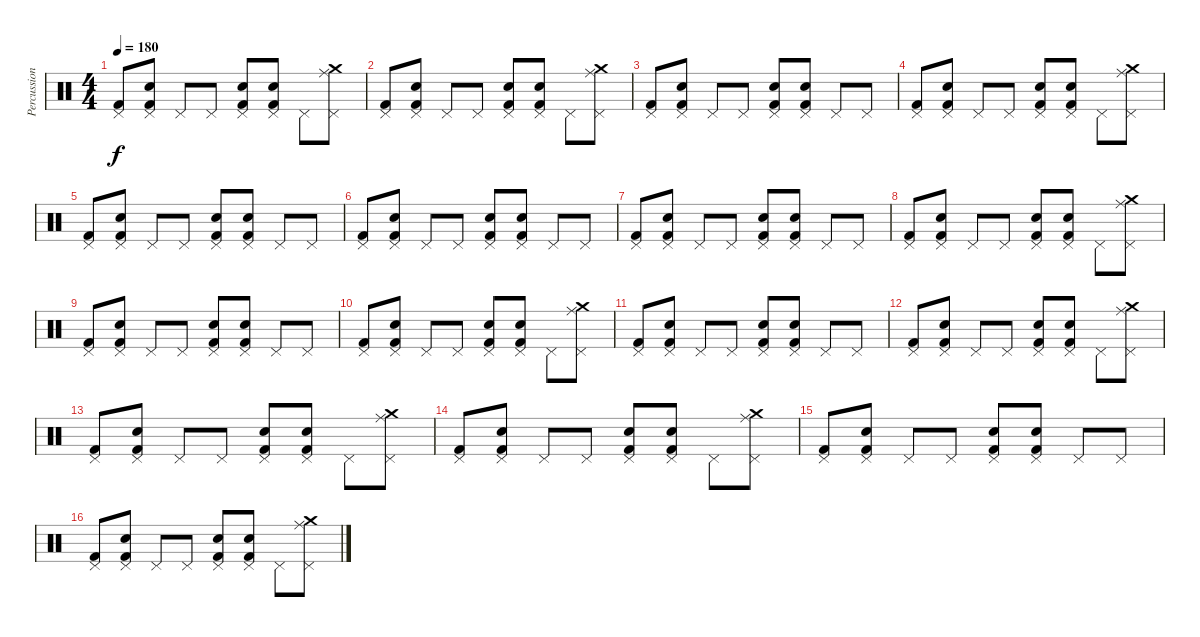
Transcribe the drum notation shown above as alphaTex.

\track ("Percussion" "Percussion") {instrument percussion}
\staff {score}
\articulation defaults
\ts (4 4)
\tempo 180
\clef neutral
\ks c
("Pedal Hi-Hat (hit)" "Kick (hit) 2").8{dy f} ("Pedal Hi-Hat (hit)" "Snare (hit) 2" "Kick (hit) 2").8 "Pedal Hi-Hat (hit)".8 "Pedal Hi-Hat (hit)".8 ("Pedal Hi-Hat (hit)" "Snare (hit) 2" "Kick (hit) 2").8 ("Pedal Hi-Hat (hit)" "Snare (hit) 2" "Kick (hit) 2").8 "Pedal Hi-Hat (hit)".8 ("Pedal Hi-Hat (hit)" "Ride (middle)" "Crash medium (hit)").8 |
("Pedal Hi-Hat (hit)" "Kick (hit) 2").8 ("Pedal Hi-Hat (hit)" "Snare (hit) 2" "Kick (hit) 2").8 "Pedal Hi-Hat (hit)".8 "Pedal Hi-Hat (hit)".8 ("Pedal Hi-Hat (hit)" "Snare (hit) 2" "Kick (hit) 2").8 ("Pedal Hi-Hat (hit)" "Snare (hit) 2" "Kick (hit) 2").8 "Pedal Hi-Hat (hit)".8 ("Pedal Hi-Hat (hit)" "Ride (middle)" "Crash medium (hit)").8 |
("Pedal Hi-Hat (hit)" "Kick (hit) 2").8 ("Pedal Hi-Hat (hit)" "Snare (hit) 2" "Kick (hit) 2").8 "Pedal Hi-Hat (hit)".8 "Pedal Hi-Hat (hit)".8 ("Pedal Hi-Hat (hit)" "Snare (hit) 2" "Kick (hit) 2").8 ("Pedal Hi-Hat (hit)" "Snare (hit) 2" "Kick (hit) 2").8 "Pedal Hi-Hat (hit)".8 "Pedal Hi-Hat (hit)".8 |
("Pedal Hi-Hat (hit)" "Kick (hit) 2").8 ("Pedal Hi-Hat (hit)" "Snare (hit) 2" "Kick (hit) 2").8 "Pedal Hi-Hat (hit)".8 "Pedal Hi-Hat (hit)".8 ("Pedal Hi-Hat (hit)" "Snare (hit) 2" "Kick (hit) 2").8 ("Pedal Hi-Hat (hit)" "Snare (hit) 2" "Kick (hit) 2").8 "Pedal Hi-Hat (hit)".8 ("Pedal Hi-Hat (hit)" "Ride (middle)" "Crash medium (hit)").8 |
("Pedal Hi-Hat (hit)" "Kick (hit) 2").8 ("Pedal Hi-Hat (hit)" "Snare (hit) 2" "Kick (hit) 2").8 "Pedal Hi-Hat (hit)".8 "Pedal Hi-Hat (hit)".8 ("Pedal Hi-Hat (hit)" "Snare (hit) 2" "Kick (hit) 2").8 ("Pedal Hi-Hat (hit)" "Snare (hit) 2" "Kick (hit) 2").8 "Pedal Hi-Hat (hit)".8 "Pedal Hi-Hat (hit)".8 |
("Pedal Hi-Hat (hit)" "Kick (hit) 2").8 ("Pedal Hi-Hat (hit)" "Snare (hit) 2" "Kick (hit) 2").8 "Pedal Hi-Hat (hit)".8 "Pedal Hi-Hat (hit)".8 ("Pedal Hi-Hat (hit)" "Snare (hit) 2" "Kick (hit) 2").8 ("Pedal Hi-Hat (hit)" "Snare (hit) 2" "Kick (hit) 2").8 "Pedal Hi-Hat (hit)".8 "Pedal Hi-Hat (hit)".8 |
("Pedal Hi-Hat (hit)" "Kick (hit) 2").8 ("Pedal Hi-Hat (hit)" "Snare (hit) 2" "Kick (hit) 2").8 "Pedal Hi-Hat (hit)".8 "Pedal Hi-Hat (hit)".8 ("Pedal Hi-Hat (hit)" "Snare (hit) 2" "Kick (hit) 2").8 ("Pedal Hi-Hat (hit)" "Snare (hit) 2" "Kick (hit) 2").8 "Pedal Hi-Hat (hit)".8 "Pedal Hi-Hat (hit)".8 |
("Pedal Hi-Hat (hit)" "Kick (hit) 2").8 ("Pedal Hi-Hat (hit)" "Snare (hit) 2" "Kick (hit) 2").8 "Pedal Hi-Hat (hit)".8 "Pedal Hi-Hat (hit)".8 ("Pedal Hi-Hat (hit)" "Snare (hit) 2" "Kick (hit) 2").8 ("Pedal Hi-Hat (hit)" "Snare (hit) 2" "Kick (hit) 2").8 "Pedal Hi-Hat (hit)".8 ("Pedal Hi-Hat (hit)" "Ride (middle)" "Crash medium (hit)").8 |
("Pedal Hi-Hat (hit)" "Kick (hit) 2").8 ("Pedal Hi-Hat (hit)" "Snare (hit) 2" "Kick (hit) 2").8 "Pedal Hi-Hat (hit)".8 "Pedal Hi-Hat (hit)".8 ("Pedal Hi-Hat (hit)" "Snare (hit) 2" "Kick (hit) 2").8 ("Pedal Hi-Hat (hit)" "Snare (hit) 2" "Kick (hit) 2").8 "Pedal Hi-Hat (hit)".8 "Pedal Hi-Hat (hit)".8 |
("Pedal Hi-Hat (hit)" "Kick (hit) 2").8 ("Pedal Hi-Hat (hit)" "Snare (hit) 2" "Kick (hit) 2").8 "Pedal Hi-Hat (hit)".8 "Pedal Hi-Hat (hit)".8 ("Pedal Hi-Hat (hit)" "Snare (hit) 2" "Kick (hit) 2").8 ("Pedal Hi-Hat (hit)" "Snare (hit) 2" "Kick (hit) 2").8 "Pedal Hi-Hat (hit)".8 ("Pedal Hi-Hat (hit)" "Ride (middle)" "Crash medium (hit)").8 |
("Pedal Hi-Hat (hit)" "Kick (hit) 2").8 ("Pedal Hi-Hat (hit)" "Snare (hit) 2" "Kick (hit) 2").8 "Pedal Hi-Hat (hit)".8 "Pedal Hi-Hat (hit)".8 ("Pedal Hi-Hat (hit)" "Snare (hit) 2" "Kick (hit) 2").8 ("Pedal Hi-Hat (hit)" "Snare (hit) 2" "Kick (hit) 2").8 "Pedal Hi-Hat (hit)".8 "Pedal Hi-Hat (hit)".8 |
("Pedal Hi-Hat (hit)" "Kick (hit) 2").8 ("Pedal Hi-Hat (hit)" "Snare (hit) 2" "Kick (hit) 2").8 "Pedal Hi-Hat (hit)".8 "Pedal Hi-Hat (hit)".8 ("Pedal Hi-Hat (hit)" "Snare (hit) 2" "Kick (hit) 2").8 ("Pedal Hi-Hat (hit)" "Snare (hit) 2" "Kick (hit) 2").8 "Pedal Hi-Hat (hit)".8 ("Pedal Hi-Hat (hit)" "Ride (middle)" "Crash medium (hit)").8 |
("Pedal Hi-Hat (hit)" "Kick (hit) 2").8 ("Pedal Hi-Hat (hit)" "Snare (hit) 2" "Kick (hit) 2").8 "Pedal Hi-Hat (hit)".8 "Pedal Hi-Hat (hit)".8 ("Pedal Hi-Hat (hit)" "Snare (hit) 2" "Kick (hit) 2").8 ("Pedal Hi-Hat (hit)" "Snare (hit) 2" "Kick (hit) 2").8 "Pedal Hi-Hat (hit)".8 ("Pedal Hi-Hat (hit)" "Ride (middle)" "Crash medium (hit)").8 |
("Pedal Hi-Hat (hit)" "Kick (hit) 2").8 ("Pedal Hi-Hat (hit)" "Snare (hit) 2" "Kick (hit) 2").8 "Pedal Hi-Hat (hit)".8 "Pedal Hi-Hat (hit)".8 ("Pedal Hi-Hat (hit)" "Snare (hit) 2" "Kick (hit) 2").8 ("Pedal Hi-Hat (hit)" "Snare (hit) 2" "Kick (hit) 2").8 "Pedal Hi-Hat (hit)".8 ("Pedal Hi-Hat (hit)" "Ride (middle)" "Crash medium (hit)").8 |
("Pedal Hi-Hat (hit)" "Kick (hit) 2").8 ("Pedal Hi-Hat (hit)" "Snare (hit) 2" "Kick (hit) 2").8 "Pedal Hi-Hat (hit)".8 "Pedal Hi-Hat (hit)".8 ("Pedal Hi-Hat (hit)" "Snare (hit) 2" "Kick (hit) 2").8 ("Pedal Hi-Hat (hit)" "Snare (hit) 2" "Kick (hit) 2").8 "Pedal Hi-Hat (hit)".8 "Pedal Hi-Hat (hit)".8 |
("Pedal Hi-Hat (hit)" "Kick (hit) 2").8 ("Pedal Hi-Hat (hit)" "Snare (hit) 2" "Kick (hit) 2").8 "Pedal Hi-Hat (hit)".8 "Pedal Hi-Hat (hit)".8 ("Pedal Hi-Hat (hit)" "Snare (hit) 2" "Kick (hit) 2").8 ("Pedal Hi-Hat (hit)" "Snare (hit) 2" "Kick (hit) 2").8 "Pedal Hi-Hat (hit)".8 ("Pedal Hi-Hat (hit)" "Ride (middle)" "Crash medium (hit)").8
